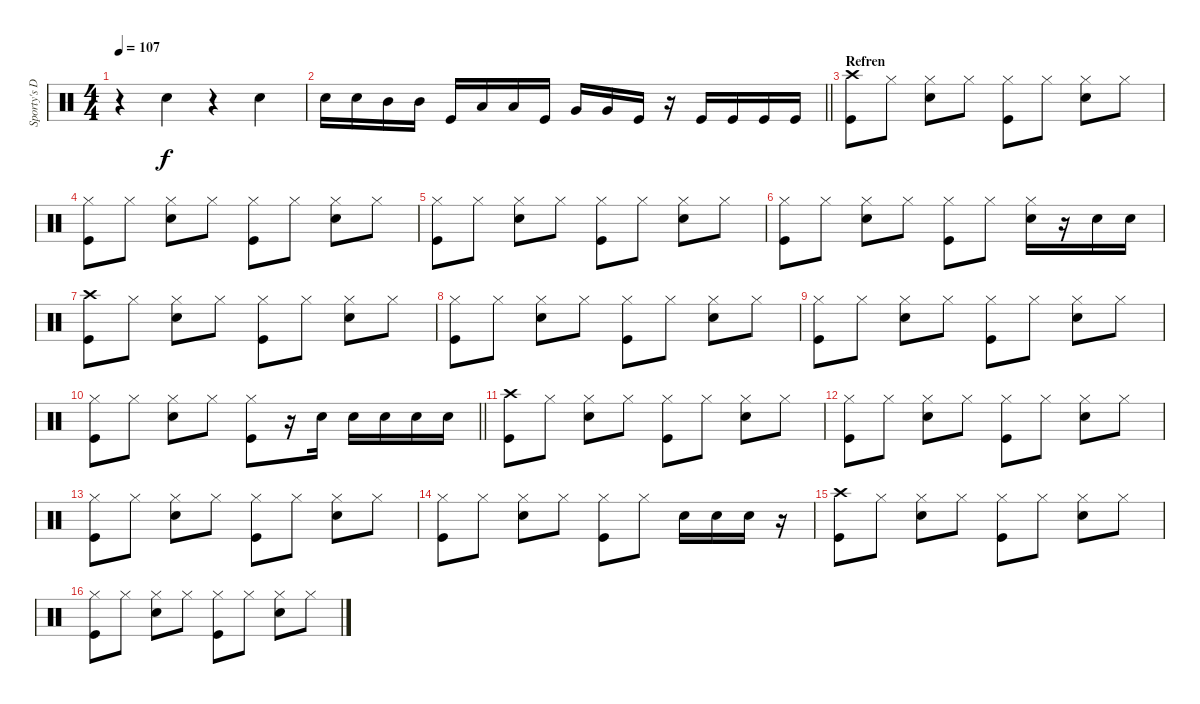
\track ("Sporty's Drums" "Sporty's D") {instrument percussion}
\staff {score}
\articulation defaults
\ts (4 4)
\tempo 107
\clef neutral
\ks c
r.4{dy f} "Electric Snare (hit)".4 r.4 "Electric Snare (hit)".4 |
\barLineRight lightlight "Electric Snare (hit)".16 "Electric Snare (hit)".16 "Mid Tom (hit)".16 "Mid Tom (hit)".16 "Kick (hit)".16 "Low Tom (hit)".16 "Low Tom (hit)".16 "Kick (hit)".16 "Very Low Tom (hit)".16 "Very Low Tom (hit)".16 "Kick (hit)".16
r.16 "Kick (hit)".16 "Kick (hit)".16 "Kick (hit)".16 "Kick (hit)".16 |
\section ("" "Refren")
("Crash high (hit)" "Kick (hit)").8 "Hi-Hat (closed)".8 ("Hi-Hat (closed)" "Electric Snare (hit)").8 "Hi-Hat (closed)".8 ("Hi-Hat (closed)" "Kick (hit)").8 "Hi-Hat (closed)".8 ("Hi-Hat (closed)" "Electric Snare (hit)").8 "Hi-Hat (closed)".8 |
("Hi-Hat (closed)" "Kick (hit)").8 "Hi-Hat (closed)".8 ("Hi-Hat (closed)" "Electric Snare (hit)").8 "Hi-Hat (closed)".8 ("Hi-Hat (closed)" "Kick (hit)").8 "Hi-Hat (closed)".8 ("Hi-Hat (closed)" "Electric Snare (hit)").8 "Hi-Hat (closed)".8 |
("Hi-Hat (closed)" "Kick (hit)").8 "Hi-Hat (closed)".8 ("Hi-Hat (closed)" "Electric Snare (hit)").8 "Hi-Hat (closed)".8 ("Hi-Hat (closed)" "Kick (hit)").8 "Hi-Hat (closed)".8 ("Hi-Hat (closed)" "Electric Snare (hit)").8 "Hi-Hat (closed)".8 |
("Hi-Hat (closed)" "Kick (hit)").8 "Hi-Hat (closed)".8 ("Hi-Hat (closed)" "Electric Snare (hit)").8 "Hi-Hat (closed)".8 ("Hi-Hat (closed)" "Kick (hit)").8 "Hi-Hat (closed)".8 ("Hi-Hat (closed)" "Electric Snare (hit)").16 r.16 "Electric Snare (hit)".16 "Electric Snare (hit)".16 |
("Crash high (hit)" "Kick (hit)").8 "Hi-Hat (closed)".8 ("Hi-Hat (closed)" "Electric Snare (hit)").8 "Hi-Hat (closed)".8 ("Hi-Hat (closed)" "Kick (hit)").8 "Hi-Hat (closed)".8 ("Hi-Hat (closed)" "Electric Snare (hit)").8 "Hi-Hat (closed)".8 |
("Hi-Hat (closed)" "Kick (hit)").8 "Hi-Hat (closed)".8 ("Hi-Hat (closed)" "Electric Snare (hit)").8 "Hi-Hat (closed)".8 ("Hi-Hat (closed)" "Kick (hit)").8 "Hi-Hat (closed)".8 ("Hi-Hat (closed)" "Electric Snare (hit)").8 "Hi-Hat (closed)".8 |
("Hi-Hat (closed)" "Kick (hit)").8 "Hi-Hat (closed)".8 ("Hi-Hat (closed)" "Electric Snare (hit)").8 "Hi-Hat (closed)".8 ("Hi-Hat (closed)" "Kick (hit)").8 "Hi-Hat (closed)".8 ("Hi-Hat (closed)" "Electric Snare (hit)").8 "Hi-Hat (closed)".8 |
\barLineRight lightlight
("Hi-Hat (closed)" "Kick (hit)").8 "Hi-Hat (closed)".8 ("Hi-Hat (closed)" "Electric Snare (hit)").8 "Hi-Hat (closed)".8 ("Hi-Hat (closed)" "Kick (hit)").8 r.16 "Electric Snare (hit)".16 "Electric Snare (hit)".16 "Electric Snare (hit)".16 "Electric Snare (hit)".16 "Electric Snare (hit)".16 |
("Crash high (hit)" "Kick (hit)").8 "Hi-Hat (closed)".8 ("Hi-Hat (closed)" "Electric Snare (hit)").8 "Hi-Hat (closed)".8 ("Hi-Hat (closed)" "Kick (hit)").8 "Hi-Hat (closed)".8 ("Hi-Hat (closed)" "Electric Snare (hit)").8 "Hi-Hat (closed)".8 |
("Hi-Hat (closed)" "Kick (hit)").8 "Hi-Hat (closed)".8 ("Hi-Hat (closed)" "Electric Snare (hit)").8 "Hi-Hat (closed)".8 ("Hi-Hat (closed)" "Kick (hit)").8 "Hi-Hat (closed)".8 ("Hi-Hat (closed)" "Electric Snare (hit)").8 "Hi-Hat (closed)".8 |
("Hi-Hat (closed)" "Kick (hit)").8 "Hi-Hat (closed)".8 ("Hi-Hat (closed)" "Electric Snare (hit)").8 "Hi-Hat (closed)".8 ("Hi-Hat (closed)" "Kick (hit)").8 "Hi-Hat (closed)".8 ("Hi-Hat (closed)" "Electric Snare (hit)").8 "Hi-Hat (closed)".8 |
("Hi-Hat (closed)" "Kick (hit)").8 "Hi-Hat (closed)".8 ("Hi-Hat (closed)" "Electric Snare (hit)").8 "Hi-Hat (closed)".8 ("Hi-Hat (closed)" "Kick (hit)").8 "Hi-Hat (closed)".8 "Electric Snare (hit)".16 "Electric Snare (hit)".16 "Electric Snare (hit)".16 r.16 |
("Crash high (hit)" "Kick (hit)").8 "Hi-Hat (closed)".8 ("Hi-Hat (closed)" "Electric Snare (hit)").8 "Hi-Hat (closed)".8 ("Hi-Hat (closed)" "Kick (hit)").8 "Hi-Hat (closed)".8 ("Hi-Hat (closed)" "Electric Snare (hit)").8 "Hi-Hat (closed)".8 |
("Hi-Hat (closed)" "Kick (hit)").8 "Hi-Hat (closed)".8 ("Hi-Hat (closed)" "Electric Snare (hit)").8 "Hi-Hat (closed)".8 ("Hi-Hat (closed)" "Kick (hit)").8 "Hi-Hat (closed)".8 ("Hi-Hat (closed)" "Electric Snare (hit)").8 "Hi-Hat (closed)".8
